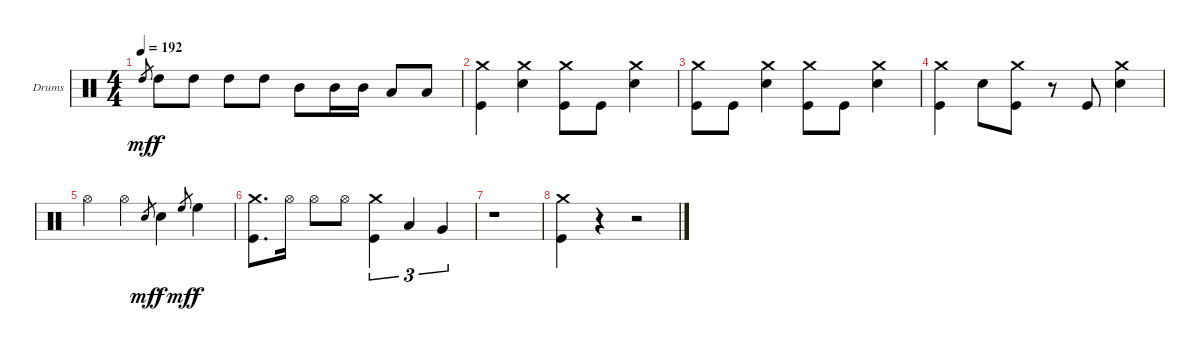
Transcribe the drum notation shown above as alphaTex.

\bracketExtendMode groupsimilarinstruments
\firstSystemTrackNameOrientation horizontal
\otherSystemsTrackNameOrientation horizontal
\track ("Lars Ulrich" "Drums") {instrument percussion}
\staff {score}
\articulation defaults
\ts (4 4)
\tempo 192
\clef neutral
\ks c "High Tom (hit)".8{gr dy mf} "High Tom (hit)".8{dy f} "High Tom (hit)".8 "High Tom (hit)".8 "High Tom (hit)".8 "Mid Tom (hit)".8 "Mid Tom (hit)".16 "Mid Tom (hit)".16 "Low Tom (hit)".8 "Low Tom (hit)".8
|
("Crash medium (hit)" "Kick (hit)").4 ("Crash medium (hit)" "Snare (hit) 2").4 ("Crash medium (hit)" "Kick (hit)").8 "Kick (hit)".8 ("Crash medium (hit)" "Snare (hit) 2").4 |
("Crash medium (hit)" "Kick (hit)").8 "Kick (hit)".8 ("Crash medium (hit)" "Snare (hit) 2").4 ("Crash medium (hit)" "Kick (hit)").8 "Kick (hit)".8 ("Crash medium (hit)" "Snare (hit) 2").4 |
("Crash medium (hit)" "Kick (hit)").4 "Snare (hit) 2".8 ("Crash medium (hit)" "Kick (hit)").8 r.8 "Kick (hit)".8 ("Crash medium (hit)" "Snare (hit) 2").4 |
"Hi-Hat (open)".4 "Hi-Hat (open)".4 "Snare (hit) 2".8{gr dy mf} "Snare (hit) 2".4{dy f} "High Floor Tom (hit)".8{gr dy mf} "High Floor Tom (hit)".4{dy f} |
("Crash medium (hit)" "Kick (hit)").8{d} "Hi-Hat (open)".16 "Hi-Hat (open)".8 "Hi-Hat (open)".8 ("Crash medium (hit)" "Kick (hit)").4{tu (3 2)} "Low Tom (hit)".4{tu (3 2)} "Very Low Tom (hit)".4{tu (3 2)} |
r.1 |
("Crash medium (hit)" "Kick (hit)").4 r.4 r.2
